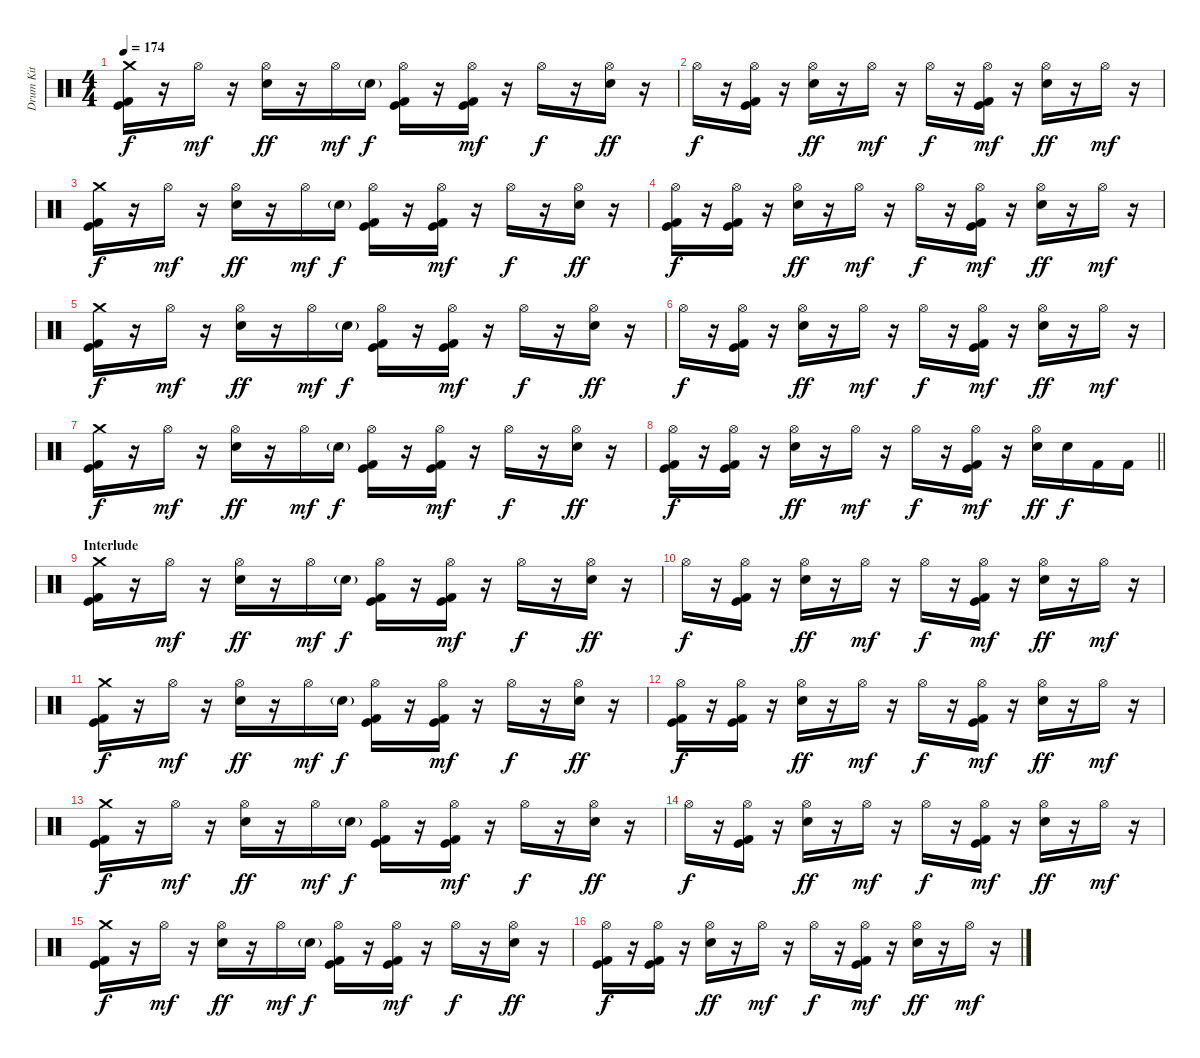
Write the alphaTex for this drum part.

\track ("Drum Kit" "Drum Kit") {instrument percussion}
\staff {score}
\articulation defaults
\ts (4 4)
\tempo 174
\clef neutral
\ks c
("Crash medium (hit)" "Kick (hit)" "Kick (hit) 2").16{dy f} r.16 "Hi-Hat (open)".16{dy mf} r.16 ("Hi-Hat (open)" "Electric Snare (hit)").16{dy ff} r.16 "Hi-Hat (open)".16{dy mf} "Electric Snare (hit)"{g}.16{dy f} ("Hi-Hat (open)" "Kick (hit)" "Kick (hit) 2").16 r.16 ("Hi-Hat (open)" "Kick (hit)" "Kick (hit) 2").16{dy mf} r.16 "Hi-Hat (open)".16{dy f} r.16 ("Hi-Hat (open)" "Electric Snare (hit)").16{dy ff} r.16 |
"Hi-Hat (open)".16{dy f} r.16 ("Hi-Hat (open)" "Kick (hit)" "Kick (hit) 2").16 r.16 ("Hi-Hat (open)" "Electric Snare (hit)").16{dy ff} r.16 "Hi-Hat (open)".16{dy mf} r.16 "Hi-Hat (open)".16{dy f} r.16 ("Hi-Hat (open)" "Kick (hit)" "Kick (hit) 2").16{dy mf} r.16 ("Hi-Hat (open)" "Electric Snare (hit)").16{dy ff} r.16 "Hi-Hat (open)".16{dy mf} r.16 |
("Crash medium (hit)" "Kick (hit)" "Kick (hit) 2").16{dy f} r.16 "Hi-Hat (open)".16{dy mf} r.16 ("Hi-Hat (open)" "Electric Snare (hit)").16{dy ff} r.16 "Hi-Hat (open)".16{dy mf} "Electric Snare (hit)"{g}.16{dy f} ("Hi-Hat (open)" "Kick (hit)" "Kick (hit) 2").16 r.16 ("Hi-Hat (open)" "Kick (hit)" "Kick (hit) 2").16{dy mf} r.16 "Hi-Hat (open)".16{dy f} r.16 ("Hi-Hat (open)" "Electric Snare (hit)").16{dy ff} r.16 |
("Hi-Hat (open)" "Kick (hit)" "Kick (hit) 2").16{dy f} r.16 ("Hi-Hat (open)" "Kick (hit)" "Kick (hit) 2").16 r.16 ("Hi-Hat (open)" "Electric Snare (hit)").16{dy ff} r.16 "Hi-Hat (open)".16{dy mf} r.16 "Hi-Hat (open)".16{dy f} r.16 ("Hi-Hat (open)" "Kick (hit)" "Kick (hit) 2").16{dy mf} r.16 ("Hi-Hat (open)" "Electric Snare (hit)").16{dy ff} r.16 "Hi-Hat (open)".16{dy mf} r.16 |
("Crash medium (hit)" "Kick (hit)" "Kick (hit) 2").16{dy f} r.16 "Hi-Hat (open)".16{dy mf} r.16 ("Hi-Hat (open)" "Electric Snare (hit)").16{dy ff} r.16 "Hi-Hat (open)".16{dy mf} "Electric Snare (hit)"{g}.16{dy f} ("Hi-Hat (open)" "Kick (hit)" "Kick (hit) 2").16 r.16 ("Hi-Hat (open)" "Kick (hit)" "Kick (hit) 2").16{dy mf} r.16 "Hi-Hat (open)".16{dy f} r.16 ("Hi-Hat (open)" "Electric Snare (hit)").16{dy ff} r.16 |
"Hi-Hat (open)".16{dy f} r.16 ("Hi-Hat (open)" "Kick (hit)" "Kick (hit) 2").16 r.16 ("Hi-Hat (open)" "Electric Snare (hit)").16{dy ff} r.16 "Hi-Hat (open)".16{dy mf} r.16 "Hi-Hat (open)".16{dy f} r.16 ("Hi-Hat (open)" "Kick (hit)" "Kick (hit) 2").16{dy mf} r.16 ("Hi-Hat (open)" "Electric Snare (hit)").16{dy ff} r.16 "Hi-Hat (open)".16{dy mf} r.16 |
("Crash medium (hit)" "Kick (hit)" "Kick (hit) 2").16{dy f} r.16 "Hi-Hat (open)".16{dy mf} r.16 ("Hi-Hat (open)" "Electric Snare (hit)").16{dy ff} r.16 "Hi-Hat (open)".16{dy mf} "Electric Snare (hit)"{g}.16{dy f} ("Hi-Hat (open)" "Kick (hit)" "Kick (hit) 2").16 r.16 ("Hi-Hat (open)" "Kick (hit)" "Kick (hit) 2").16{dy mf} r.16 "Hi-Hat (open)".16{dy f} r.16 ("Hi-Hat (open)" "Electric Snare (hit)").16{dy ff} r.16 |
\barLineRight lightlight
("Hi-Hat (open)" "Kick (hit)" "Kick (hit) 2").16{dy f} r.16 ("Hi-Hat (open)" "Kick (hit)" "Kick (hit) 2").16 r.16 ("Hi-Hat (open)" "Electric Snare (hit)").16{dy ff} r.16 "Hi-Hat (open)".16{dy mf} r.16 "Hi-Hat (open)".16{dy f} r.16 ("Hi-Hat (open)" "Kick (hit)" "Kick (hit) 2").16{dy mf} r.16 ("Hi-Hat (open)" "Electric Snare (hit)").16{dy ff} "Electric Snare (hit)".16{dy f} "Kick (hit) 2".16 "Kick (hit) 2".16 |
\section ("" "Interlude")
("Crash medium (hit)" "Kick (hit)" "Kick (hit) 2").16 r.16 "Hi-Hat (open)".16{dy mf} r.16 ("Hi-Hat (open)" "Electric Snare (hit)").16{dy ff} r.16 "Hi-Hat (open)".16{dy mf} "Electric Snare (hit)"{g}.16{dy f} ("Hi-Hat (open)" "Kick (hit)" "Kick (hit) 2").16 r.16 ("Hi-Hat (open)" "Kick (hit)" "Kick (hit) 2").16{dy mf} r.16 "Hi-Hat (open)".16{dy f} r.16 ("Hi-Hat (open)" "Electric Snare (hit)").16{dy ff} r.16 |
"Hi-Hat (open)".16{dy f} r.16 ("Hi-Hat (open)" "Kick (hit)" "Kick (hit) 2").16 r.16 ("Hi-Hat (open)" "Electric Snare (hit)").16{dy ff} r.16 "Hi-Hat (open)".16{dy mf} r.16 "Hi-Hat (open)".16{dy f} r.16 ("Hi-Hat (open)" "Kick (hit)" "Kick (hit) 2").16{dy mf} r.16 ("Hi-Hat (open)" "Electric Snare (hit)").16{dy ff} r.16 "Hi-Hat (open)".16{dy mf} r.16 |
("Crash medium (hit)" "Kick (hit)" "Kick (hit) 2").16{dy f} r.16 "Hi-Hat (open)".16{dy mf} r.16 ("Hi-Hat (open)" "Electric Snare (hit)").16{dy ff} r.16 "Hi-Hat (open)".16{dy mf} "Electric Snare (hit)"{g}.16{dy f} ("Hi-Hat (open)" "Kick (hit)" "Kick (hit) 2").16 r.16 ("Hi-Hat (open)" "Kick (hit)" "Kick (hit) 2").16{dy mf} r.16 "Hi-Hat (open)".16{dy f} r.16 ("Hi-Hat (open)" "Electric Snare (hit)").16{dy ff} r.16 |
("Hi-Hat (open)" "Kick (hit)" "Kick (hit) 2").16{dy f} r.16 ("Hi-Hat (open)" "Kick (hit)" "Kick (hit) 2").16 r.16 ("Hi-Hat (open)" "Electric Snare (hit)").16{dy ff} r.16 "Hi-Hat (open)".16{dy mf} r.16 "Hi-Hat (open)".16{dy f} r.16 ("Hi-Hat (open)" "Kick (hit)" "Kick (hit) 2").16{dy mf} r.16 ("Hi-Hat (open)" "Electric Snare (hit)").16{dy ff} r.16 "Hi-Hat (open)".16{dy mf} r.16 |
("Crash medium (hit)" "Kick (hit)" "Kick (hit) 2").16{dy f} r.16 "Hi-Hat (open)".16{dy mf} r.16 ("Hi-Hat (open)" "Electric Snare (hit)").16{dy ff} r.16 "Hi-Hat (open)".16{dy mf} "Electric Snare (hit)"{g}.16{dy f} ("Hi-Hat (open)" "Kick (hit)" "Kick (hit) 2").16 r.16 ("Hi-Hat (open)" "Kick (hit)" "Kick (hit) 2").16{dy mf} r.16 "Hi-Hat (open)".16{dy f} r.16 ("Hi-Hat (open)" "Electric Snare (hit)").16{dy ff} r.16 |
"Hi-Hat (open)".16{dy f} r.16 ("Hi-Hat (open)" "Kick (hit)" "Kick (hit) 2").16 r.16 ("Hi-Hat (open)" "Electric Snare (hit)").16{dy ff} r.16 "Hi-Hat (open)".16{dy mf} r.16 "Hi-Hat (open)".16{dy f} r.16 ("Hi-Hat (open)" "Kick (hit)" "Kick (hit) 2").16{dy mf} r.16 ("Hi-Hat (open)" "Electric Snare (hit)").16{dy ff} r.16 "Hi-Hat (open)".16{dy mf} r.16 |
("Crash medium (hit)" "Kick (hit)" "Kick (hit) 2").16{dy f} r.16 "Hi-Hat (open)".16{dy mf} r.16 ("Hi-Hat (open)" "Electric Snare (hit)").16{dy ff} r.16 "Hi-Hat (open)".16{dy mf} "Electric Snare (hit)"{g}.16{dy f} ("Hi-Hat (open)" "Kick (hit)" "Kick (hit) 2").16 r.16 ("Hi-Hat (open)" "Kick (hit)" "Kick (hit) 2").16{dy mf} r.16 "Hi-Hat (open)".16{dy f} r.16 ("Hi-Hat (open)" "Electric Snare (hit)").16{dy ff} r.16 |
("Hi-Hat (open)" "Kick (hit)" "Kick (hit) 2").16{dy f} r.16 ("Hi-Hat (open)" "Kick (hit)" "Kick (hit) 2").16 r.16 ("Hi-Hat (open)" "Electric Snare (hit)").16{dy ff} r.16 "Hi-Hat (open)".16{dy mf} r.16 "Hi-Hat (open)".16{dy f} r.16 ("Hi-Hat (open)" "Kick (hit)" "Kick (hit) 2").16{dy mf} r.16 ("Hi-Hat (open)" "Electric Snare (hit)").16{dy ff} r.16 "Hi-Hat (open)".16{dy mf} r.16
